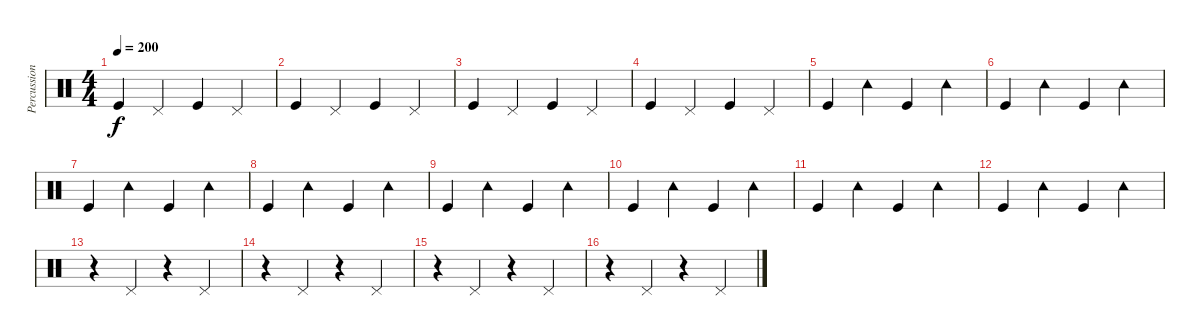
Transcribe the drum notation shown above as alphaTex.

\track ("Percussions" "Percussion") {instrument percussion}
\staff {score}
\articulation defaults
\ts (4 4)
\tempo 200
\clef neutral
\ks c "Kick (hit)".4{dy f} "Pedal Hi-Hat (hit)".4 "Kick (hit)".4 "Pedal Hi-Hat (hit)".4
|
"Kick (hit)".4 "Pedal Hi-Hat (hit)".4 "Kick (hit)".4 "Pedal Hi-Hat (hit)".4 |
"Kick (hit)".4 "Pedal Hi-Hat (hit)".4 "Kick (hit)".4 "Pedal Hi-Hat (hit)".4 |
"Kick (hit)".4 "Pedal Hi-Hat (hit)".4 "Kick (hit)".4 "Pedal Hi-Hat (hit)".4 |
"Kick (hit)".4 "Tambourine (hit)".4 "Kick (hit)".4 "Tambourine (hit)".4 |
"Kick (hit)".4 "Tambourine (hit)".4 "Kick (hit)".4 "Tambourine (hit)".4 |
"Kick (hit)".4 "Tambourine (hit)".4 "Kick (hit)".4 "Tambourine (hit)".4 |
"Kick (hit)".4 "Tambourine (hit)".4 "Kick (hit)".4 "Tambourine (hit)".4 |
"Kick (hit)".4 "Tambourine (hit)".4 "Kick (hit)".4 "Tambourine (hit)".4 |
"Kick (hit)".4 "Tambourine (hit)".4 "Kick (hit)".4 "Tambourine (hit)".4 |
"Kick (hit)".4 "Tambourine (hit)".4 "Kick (hit)".4 "Tambourine (hit)".4 |
"Kick (hit)".4 "Tambourine (hit)".4 "Kick (hit)".4 "Tambourine (hit)".4 |
r.4 "Pedal Hi-Hat (hit)".4 r.4 "Pedal Hi-Hat (hit)".4 |
r.4 "Pedal Hi-Hat (hit)".4 r.4 "Pedal Hi-Hat (hit)".4 |
r.4 "Pedal Hi-Hat (hit)".4 r.4 "Pedal Hi-Hat (hit)".4 |
r.4 "Pedal Hi-Hat (hit)".4 r.4 "Pedal Hi-Hat (hit)".4
